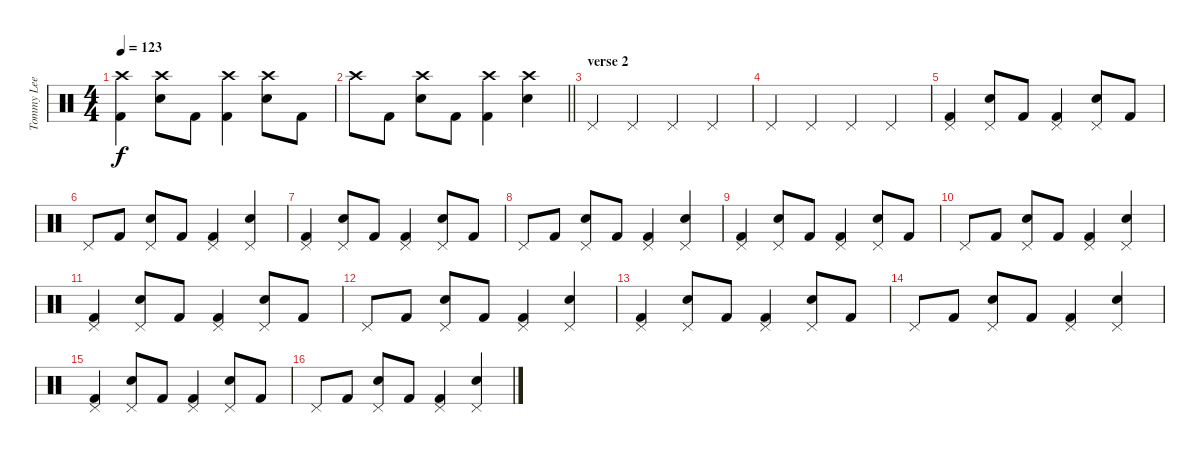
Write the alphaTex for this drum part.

\track ("Tommy Lee" "Tommy Lee") {instrument percussion}
\staff {score}
\articulation defaults
\ts (4 4)
\tempo 123
\clef neutral
\ks c
("Crash high (hit)" "Kick (hit) 2").4{dy f} ("Crash high (hit)" "Snare (hit) 2").8 "Kick (hit) 2".8 ("Crash high (hit)" "Kick (hit) 2").4 ("Crash high (hit)" "Snare (hit) 2").8 "Kick (hit) 2".8 |
\barLineRight lightlight "Crash high (hit)".8 "Kick (hit) 2".8
("Crash high (hit)" "Snare (hit) 2").8 "Kick (hit) 2".8 ("Crash high (hit)" "Kick (hit) 2").4 ("Crash high (hit)" "Snare (hit) 2").4 |
\section ("" "verse 2")
"Pedal Hi-Hat (hit)".4 "Pedal Hi-Hat (hit)".4 "Pedal Hi-Hat (hit)".4 "Pedal Hi-Hat (hit)".4 |
"Pedal Hi-Hat (hit)".4 "Pedal Hi-Hat (hit)".4 "Pedal Hi-Hat (hit)".4 "Pedal Hi-Hat (hit)".4 |
("Pedal Hi-Hat (hit)" "Kick (hit) 2").4 ("Pedal Hi-Hat (hit)" "Snare (hit) 2").8 "Kick (hit) 2".8 ("Pedal Hi-Hat (hit)" "Kick (hit) 2").4 ("Pedal Hi-Hat (hit)" "Snare (hit) 2").8 "Kick (hit) 2".8 |
"Pedal Hi-Hat (hit)".8 "Kick (hit) 2".8 ("Pedal Hi-Hat (hit)" "Snare (hit) 2").8 "Kick (hit) 2".8 ("Pedal Hi-Hat (hit)" "Kick (hit) 2").4 ("Pedal Hi-Hat (hit)" "Snare (hit) 2").4 |
("Pedal Hi-Hat (hit)" "Kick (hit) 2").4 ("Pedal Hi-Hat (hit)" "Snare (hit) 2").8 "Kick (hit) 2".8 ("Pedal Hi-Hat (hit)" "Kick (hit) 2").4 ("Pedal Hi-Hat (hit)" "Snare (hit) 2").8 "Kick (hit) 2".8 |
"Pedal Hi-Hat (hit)".8 "Kick (hit) 2".8 ("Pedal Hi-Hat (hit)" "Snare (hit) 2").8 "Kick (hit) 2".8 ("Pedal Hi-Hat (hit)" "Kick (hit) 2").4 ("Pedal Hi-Hat (hit)" "Snare (hit) 2").4 |
("Pedal Hi-Hat (hit)" "Kick (hit) 2").4 ("Pedal Hi-Hat (hit)" "Snare (hit) 2").8 "Kick (hit) 2".8 ("Pedal Hi-Hat (hit)" "Kick (hit) 2").4 ("Pedal Hi-Hat (hit)" "Snare (hit) 2").8 "Kick (hit) 2".8 |
"Pedal Hi-Hat (hit)".8 "Kick (hit) 2".8 ("Pedal Hi-Hat (hit)" "Snare (hit) 2").8 "Kick (hit) 2".8 ("Pedal Hi-Hat (hit)" "Kick (hit) 2").4 ("Pedal Hi-Hat (hit)" "Snare (hit) 2").4 |
("Pedal Hi-Hat (hit)" "Kick (hit) 2").4 ("Pedal Hi-Hat (hit)" "Snare (hit) 2").8 "Kick (hit) 2".8 ("Pedal Hi-Hat (hit)" "Kick (hit) 2").4 ("Pedal Hi-Hat (hit)" "Snare (hit) 2").8 "Kick (hit) 2".8 |
"Pedal Hi-Hat (hit)".8 "Kick (hit) 2".8 ("Pedal Hi-Hat (hit)" "Snare (hit) 2").8 "Kick (hit) 2".8 ("Pedal Hi-Hat (hit)" "Kick (hit) 2").4 ("Pedal Hi-Hat (hit)" "Snare (hit) 2").4 |
("Pedal Hi-Hat (hit)" "Kick (hit) 2").4 ("Pedal Hi-Hat (hit)" "Snare (hit) 2").8 "Kick (hit) 2".8 ("Pedal Hi-Hat (hit)" "Kick (hit) 2").4 ("Pedal Hi-Hat (hit)" "Snare (hit) 2").8 "Kick (hit) 2".8 |
"Pedal Hi-Hat (hit)".8 "Kick (hit) 2".8 ("Pedal Hi-Hat (hit)" "Snare (hit) 2").8 "Kick (hit) 2".8 ("Pedal Hi-Hat (hit)" "Kick (hit) 2").4 ("Pedal Hi-Hat (hit)" "Snare (hit) 2").4 |
("Pedal Hi-Hat (hit)" "Kick (hit) 2").4 ("Pedal Hi-Hat (hit)" "Snare (hit) 2").8 "Kick (hit) 2".8 ("Pedal Hi-Hat (hit)" "Kick (hit) 2").4 ("Pedal Hi-Hat (hit)" "Snare (hit) 2").8 "Kick (hit) 2".8 |
"Pedal Hi-Hat (hit)".8 "Kick (hit) 2".8 ("Pedal Hi-Hat (hit)" "Snare (hit) 2").8 "Kick (hit) 2".8 ("Pedal Hi-Hat (hit)" "Kick (hit) 2").4 ("Pedal Hi-Hat (hit)" "Snare (hit) 2").4
